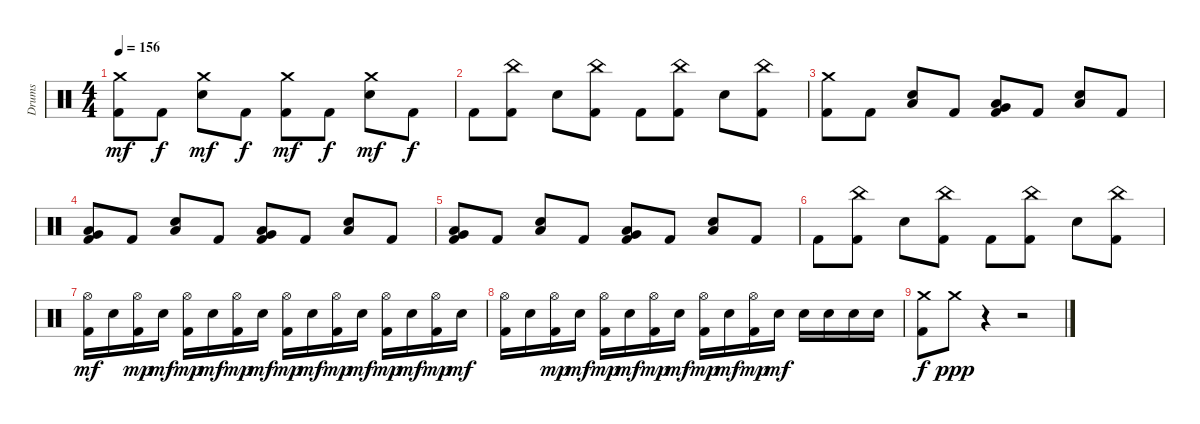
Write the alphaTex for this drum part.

\track ("Drums" "Drums") {instrument percussion}
\staff
\articulation defaults
\ts (4 4)
\tempo 156
\clef neutral
\ks c
("Crash medium (hit)" "Kick (hit) 2").8{dy mf} "Kick (hit) 2".8{dy f} ("Crash medium (hit)" "Electric Snare (hit)").8{dy mf} "Kick (hit) 2".8{dy f} ("Crash medium (hit)" "Kick (hit) 2").8{dy mf} "Kick (hit) 2".8{dy f} ("Crash medium (hit)" "Electric Snare (hit)").8{dy mf} "Kick (hit) 2".8{dy f} |
"Kick (hit) 2".8 ("China (hit)" "Kick (hit) 2").8 "Electric Snare (hit)".8 ("China (hit)" "Kick (hit) 2").8 "Kick (hit) 2".8 ("China (hit)" "Kick (hit) 2").8 "Electric Snare (hit)".8 ("China (hit)" "Kick (hit) 2").8 |
("Crash medium (hit)" "Kick (hit) 2").8 "Kick (hit) 2".8 ("Low Floor Tom (hit)" "Electric Snare (hit)").8 "Kick (hit) 2".8 ("Low Floor Tom (hit)" "Very Low Tom (hit)" "Kick (hit) 2").8 "Kick (hit) 2".8 ("Low Floor Tom (hit)" "Electric Snare (hit)").8 "Kick (hit) 2".8 |
("Low Floor Tom (hit)" "Very Low Tom (hit)" "Kick (hit) 2").8 "Kick (hit) 2".8 ("Low Floor Tom (hit)" "Electric Snare (hit)").8 "Kick (hit) 2".8 ("Low Floor Tom (hit)" "Very Low Tom (hit)" "Kick (hit) 2").8 "Kick (hit) 2".8 ("Low Floor Tom (hit)" "Electric Snare (hit)").8 "Kick (hit) 2".8 |
("Low Floor Tom (hit)" "Very Low Tom (hit)" "Kick (hit) 2").8 "Kick (hit) 2".8 ("Low Floor Tom (hit)" "Electric Snare (hit)").8 "Kick (hit) 2".8 ("Low Floor Tom (hit)" "Very Low Tom (hit)" "Kick (hit) 2").8 "Kick (hit) 2".8 ("Low Floor Tom (hit)" "Electric Snare (hit)").8 "Kick (hit) 2".8 |
"Kick (hit) 2".8 ("China (hit)" "Kick (hit) 2").8 "Electric Snare (hit)".8 ("China (hit)" "Kick (hit) 2").8 "Kick (hit) 2".8 ("China (hit)" "Kick (hit) 2").8 "Electric Snare (hit)".8 ("China (hit)" "Kick (hit) 2").8 |
("Hi-Hat (open)" "Kick (hit) 2").16{dy mf} "Electric Snare (hit)".16 ("Hi-Hat (open)" "Kick (hit) 2").16{dy mp} "Electric Snare (hit)".16{dy mf} ("Hi-Hat (open)" "Kick (hit) 2").16{dy mp} "Electric Snare (hit)".16{dy mf} ("Hi-Hat (open)" "Kick (hit) 2").16{dy mp} "Electric Snare (hit)".16{dy mf} ("Hi-Hat (open)" "Kick (hit) 2").16{dy mp} "Electric Snare (hit)".16{dy mf} ("Hi-Hat (open)" "Kick (hit) 2").16{dy mp} "Electric Snare (hit)".16{dy mf} ("Hi-Hat (open)" "Kick (hit) 2").16{dy mp} "Electric Snare (hit)".16{dy mf} ("Hi-Hat (open)" "Kick (hit) 2").16{dy mp} "Electric Snare (hit)".16{dy mf} |
("Hi-Hat (open)" "Kick (hit) 2").16 "Electric Snare (hit)".16 ("Hi-Hat (open)" "Kick (hit) 2").16{dy mp} "Electric Snare (hit)".16{dy mf} ("Hi-Hat (open)" "Kick (hit) 2").16{dy mp} "Electric Snare (hit)".16{dy mf} ("Hi-Hat (open)" "Kick (hit) 2").16{dy mp} "Electric Snare (hit)".16{dy mf} ("Hi-Hat (open)" "Kick (hit) 2").16{dy mp} "Electric Snare (hit)".16{dy mf} ("Hi-Hat (open)" "Kick (hit) 2").16{dy mp} "Electric Snare (hit)".16{dy mf} "Electric Snare (hit)".16 "Electric Snare (hit)".16 "Electric Snare (hit)".16 "Electric Snare (hit)".16 |
("Crash medium (hit)" "Kick (hit) 2").8{dy f} "Crash medium (hit)".8{dy ppp} r.4 r.2
